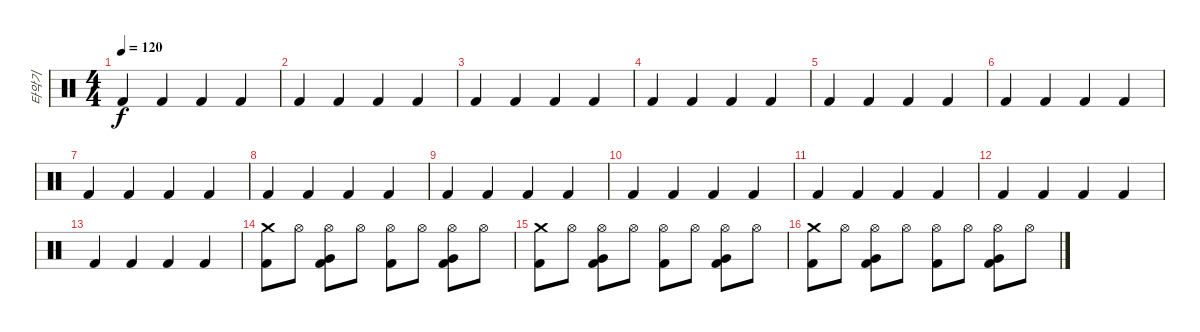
\track ("타악기" "타악기") {instrument percussion}
\staff {score}
\articulation defaults
\ts (4 4)
\tempo 120
\clef neutral
\ks c "Kick (hit) 2".4{dy f} "Kick (hit) 2".4 "Kick (hit) 2".4 "Kick (hit) 2".4
|
"Kick (hit) 2".4 "Kick (hit) 2".4 "Kick (hit) 2".4 "Kick (hit) 2".4 |
"Kick (hit) 2".4 "Kick (hit) 2".4 "Kick (hit) 2".4 "Kick (hit) 2".4 |
"Kick (hit) 2".4 "Kick (hit) 2".4 "Kick (hit) 2".4 "Kick (hit) 2".4 |
"Kick (hit) 2".4 "Kick (hit) 2".4 "Kick (hit) 2".4 "Kick (hit) 2".4 |
"Kick (hit) 2".4 "Kick (hit) 2".4 "Kick (hit) 2".4 "Kick (hit) 2".4 |
"Kick (hit) 2".4 "Kick (hit) 2".4 "Kick (hit) 2".4 "Kick (hit) 2".4 |
"Kick (hit) 2".4 "Kick (hit) 2".4 "Kick (hit) 2".4 "Kick (hit) 2".4 |
"Kick (hit) 2".4 "Kick (hit) 2".4 "Kick (hit) 2".4 "Kick (hit) 2".4 |
"Kick (hit) 2".4 "Kick (hit) 2".4 "Kick (hit) 2".4 "Kick (hit) 2".4 |
"Kick (hit) 2".4 "Kick (hit) 2".4 "Kick (hit) 2".4 "Kick (hit) 2".4 |
"Kick (hit) 2".4 "Kick (hit) 2".4 "Kick (hit) 2".4 "Kick (hit) 2".4 |
"Kick (hit) 2".4 "Kick (hit) 2".4 "Kick (hit) 2".4 "Kick (hit) 2".4 |
("Kick (hit) 2" "Crash medium (hit)").8 "Hi-Hat (open)".8 ("Kick (hit) 2" "Very Low Tom (hit)" "Hi-Hat (open)").8 "Hi-Hat (open)".8 ("Kick (hit) 2" "Hi-Hat (open)").8 "Hi-Hat (open)".8 ("Kick (hit) 2" "Very Low Tom (hit)" "Hi-Hat (open)").8 "Hi-Hat (open)".8 |
("Kick (hit) 2" "Crash medium (hit)").8 "Hi-Hat (open)".8 ("Kick (hit) 2" "Very Low Tom (hit)" "Hi-Hat (open)").8 "Hi-Hat (open)".8 ("Kick (hit) 2" "Hi-Hat (open)").8 "Hi-Hat (open)".8 ("Kick (hit) 2" "Very Low Tom (hit)" "Hi-Hat (open)").8 "Hi-Hat (open)".8 |
("Kick (hit) 2" "Crash medium (hit)").8 "Hi-Hat (open)".8 ("Kick (hit) 2" "Very Low Tom (hit)" "Hi-Hat (open)").8 "Hi-Hat (open)".8 ("Kick (hit) 2" "Hi-Hat (open)").8 "Hi-Hat (open)".8 ("Kick (hit) 2" "Very Low Tom (hit)" "Hi-Hat (open)").8 "Hi-Hat (open)".8
